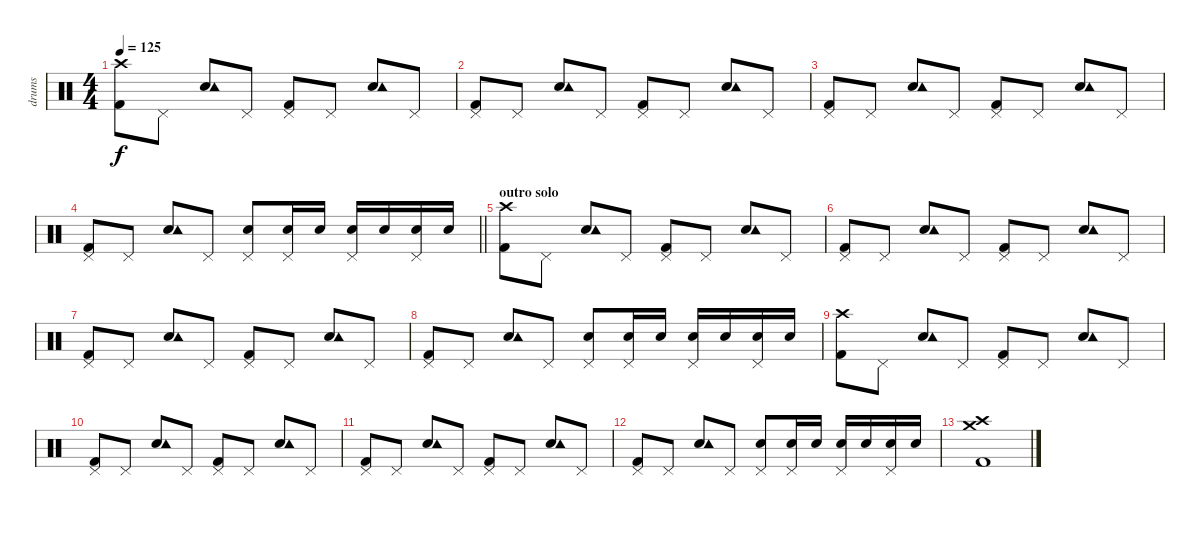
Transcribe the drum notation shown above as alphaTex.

\track ("drums" "drums") {instrument percussion}
\staff {score}
\articulation defaults
\ts (4 4)
\tempo 125
\clef neutral
\ks c
("Kick (hit) 2" "Crash high (hit)").8{dy f} "Pedal Hi-Hat (hit)".8 ("Electric Snare (hit)" "Tambourine (hit)").8 "Pedal Hi-Hat (hit)".8 ("Kick (hit) 2" "Pedal Hi-Hat (hit)").8 "Pedal Hi-Hat (hit)".8 ("Electric Snare (hit)" "Tambourine (hit)").8 "Pedal Hi-Hat (hit)".8 |
("Kick (hit) 2" "Pedal Hi-Hat (hit)").8 "Pedal Hi-Hat (hit)".8 ("Electric Snare (hit)" "Tambourine (hit)").8 "Pedal Hi-Hat (hit)".8 ("Kick (hit) 2" "Pedal Hi-Hat (hit)").8 "Pedal Hi-Hat (hit)".8 ("Electric Snare (hit)" "Tambourine (hit)").8 "Pedal Hi-Hat (hit)".8 |
("Kick (hit) 2" "Pedal Hi-Hat (hit)").8 "Pedal Hi-Hat (hit)".8 ("Electric Snare (hit)" "Tambourine (hit)").8 "Pedal Hi-Hat (hit)".8 ("Kick (hit) 2" "Pedal Hi-Hat (hit)").8 "Pedal Hi-Hat (hit)".8 ("Electric Snare (hit)" "Tambourine (hit)").8 "Pedal Hi-Hat (hit)".8 |
\barLineRight lightlight
("Kick (hit) 2" "Pedal Hi-Hat (hit)").8 "Pedal Hi-Hat (hit)".8 ("Electric Snare (hit)" "Tambourine (hit)").8 "Pedal Hi-Hat (hit)".8 ("Electric Snare (hit)" "Pedal Hi-Hat (hit)").8 ("Electric Snare (hit)" "Pedal Hi-Hat (hit)").16 "Electric Snare (hit)".16 ("Electric Snare (hit)" "Pedal Hi-Hat (hit)").16 "Electric Snare (hit)".16 ("Electric Snare (hit)" "Pedal Hi-Hat (hit)").16 "Electric Snare (hit)".16 |
\section ("" "outro solo")
("Kick (hit) 2" "Crash high (hit)").8 "Pedal Hi-Hat (hit)".8 ("Electric Snare (hit)" "Tambourine (hit)").8 "Pedal Hi-Hat (hit)".8 ("Kick (hit) 2" "Pedal Hi-Hat (hit)").8 "Pedal Hi-Hat (hit)".8 ("Electric Snare (hit)" "Tambourine (hit)").8 "Pedal Hi-Hat (hit)".8 |
("Kick (hit) 2" "Pedal Hi-Hat (hit)").8 "Pedal Hi-Hat (hit)".8 ("Electric Snare (hit)" "Tambourine (hit)").8 "Pedal Hi-Hat (hit)".8 ("Kick (hit) 2" "Pedal Hi-Hat (hit)").8 "Pedal Hi-Hat (hit)".8 ("Electric Snare (hit)" "Tambourine (hit)").8 "Pedal Hi-Hat (hit)".8 |
("Kick (hit) 2" "Pedal Hi-Hat (hit)").8 "Pedal Hi-Hat (hit)".8 ("Electric Snare (hit)" "Tambourine (hit)").8 "Pedal Hi-Hat (hit)".8 ("Kick (hit) 2" "Pedal Hi-Hat (hit)").8 "Pedal Hi-Hat (hit)".8 ("Electric Snare (hit)" "Tambourine (hit)").8 "Pedal Hi-Hat (hit)".8 |
("Kick (hit) 2" "Pedal Hi-Hat (hit)").8 "Pedal Hi-Hat (hit)".8 ("Electric Snare (hit)" "Tambourine (hit)").8 "Pedal Hi-Hat (hit)".8 ("Electric Snare (hit)" "Pedal Hi-Hat (hit)").8 ("Electric Snare (hit)" "Pedal Hi-Hat (hit)").16 "Electric Snare (hit)".16 ("Electric Snare (hit)" "Pedal Hi-Hat (hit)").16 "Electric Snare (hit)".16 ("Electric Snare (hit)" "Pedal Hi-Hat (hit)").16 "Electric Snare (hit)".16 |
("Kick (hit) 2" "Crash high (hit)").8 "Pedal Hi-Hat (hit)".8 ("Electric Snare (hit)" "Tambourine (hit)").8 "Pedal Hi-Hat (hit)".8 ("Kick (hit) 2" "Pedal Hi-Hat (hit)").8 "Pedal Hi-Hat (hit)".8 ("Electric Snare (hit)" "Tambourine (hit)").8 "Pedal Hi-Hat (hit)".8 |
("Kick (hit) 2" "Pedal Hi-Hat (hit)").8 "Pedal Hi-Hat (hit)".8 ("Electric Snare (hit)" "Tambourine (hit)").8 "Pedal Hi-Hat (hit)".8 ("Kick (hit) 2" "Pedal Hi-Hat (hit)").8 "Pedal Hi-Hat (hit)".8 ("Electric Snare (hit)" "Tambourine (hit)").8 "Pedal Hi-Hat (hit)".8 |
("Kick (hit) 2" "Pedal Hi-Hat (hit)").8 "Pedal Hi-Hat (hit)".8 ("Electric Snare (hit)" "Tambourine (hit)").8 "Pedal Hi-Hat (hit)".8 ("Kick (hit) 2" "Pedal Hi-Hat (hit)").8 "Pedal Hi-Hat (hit)".8 ("Electric Snare (hit)" "Tambourine (hit)").8 "Pedal Hi-Hat (hit)".8 |
("Kick (hit) 2" "Pedal Hi-Hat (hit)").8 "Pedal Hi-Hat (hit)".8 ("Electric Snare (hit)" "Tambourine (hit)").8 "Pedal Hi-Hat (hit)".8 ("Electric Snare (hit)" "Pedal Hi-Hat (hit)").8 ("Electric Snare (hit)" "Pedal Hi-Hat (hit)").16 "Electric Snare (hit)".16 ("Electric Snare (hit)" "Pedal Hi-Hat (hit)").16 "Electric Snare (hit)".16 ("Electric Snare (hit)" "Pedal Hi-Hat (hit)").16 "Electric Snare (hit)".16 |
("Kick (hit) 2" "Crash high (hit)" "Crash medium (hit)").1
